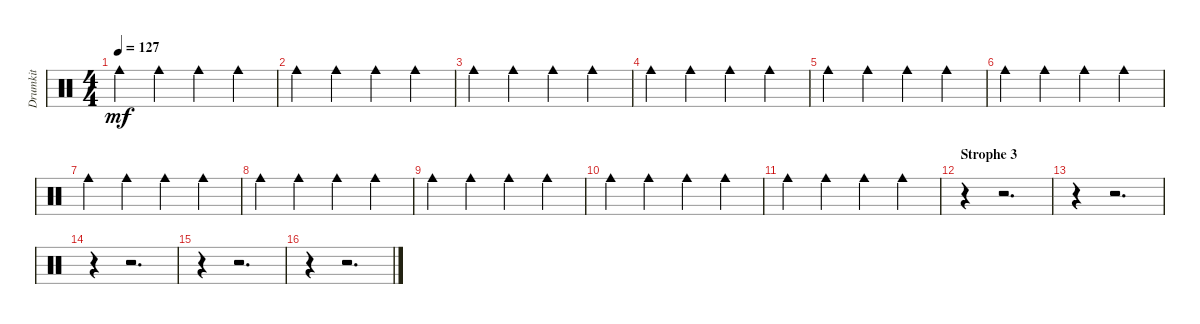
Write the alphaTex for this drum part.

\track ("Drumkit" "Drumkit") {instrument percussion}
\staff {score}
\articulation defaults
\ts (4 4)
\tempo 127
\clef neutral
\ks c "Cowbell medium (hit)".4{dy mf} "Cowbell medium (hit)".4 "Cowbell medium (hit)".4 "Cowbell medium (hit)".4
|
"Cowbell medium (hit)".4 "Cowbell medium (hit)".4 "Cowbell medium (hit)".4 "Cowbell medium (hit)".4 |
"Cowbell medium (hit)".4 "Cowbell medium (hit)".4 "Cowbell medium (hit)".4 "Cowbell medium (hit)".4 |
"Cowbell medium (hit)".4 "Cowbell medium (hit)".4 "Cowbell medium (hit)".4 "Cowbell medium (hit)".4 |
"Cowbell medium (hit)".4 "Cowbell medium (hit)".4 "Cowbell medium (hit)".4 "Cowbell medium (hit)".4 |
"Cowbell medium (hit)".4 "Cowbell medium (hit)".4 "Cowbell medium (hit)".4 "Cowbell medium (hit)".4 |
"Cowbell medium (hit)".4 "Cowbell medium (hit)".4 "Cowbell medium (hit)".4 "Cowbell medium (hit)".4 |
"Cowbell medium (hit)".4 "Cowbell medium (hit)".4 "Cowbell medium (hit)".4 "Cowbell medium (hit)".4 |
"Cowbell medium (hit)".4 "Cowbell medium (hit)".4 "Cowbell medium (hit)".4 "Cowbell medium (hit)".4 |
"Cowbell medium (hit)".4 "Cowbell medium (hit)".4 "Cowbell medium (hit)".4 "Cowbell medium (hit)".4 |
"Cowbell medium (hit)".4 "Cowbell medium (hit)".4 "Cowbell medium (hit)".4 "Cowbell medium (hit)".4 |
\section ("" "Strophe 3")
r.4 r.2{d} |
r.4 r.2{d} |
r.4 r.2{d} |
r.4 r.2{d} |
r.4 r.2{d}
